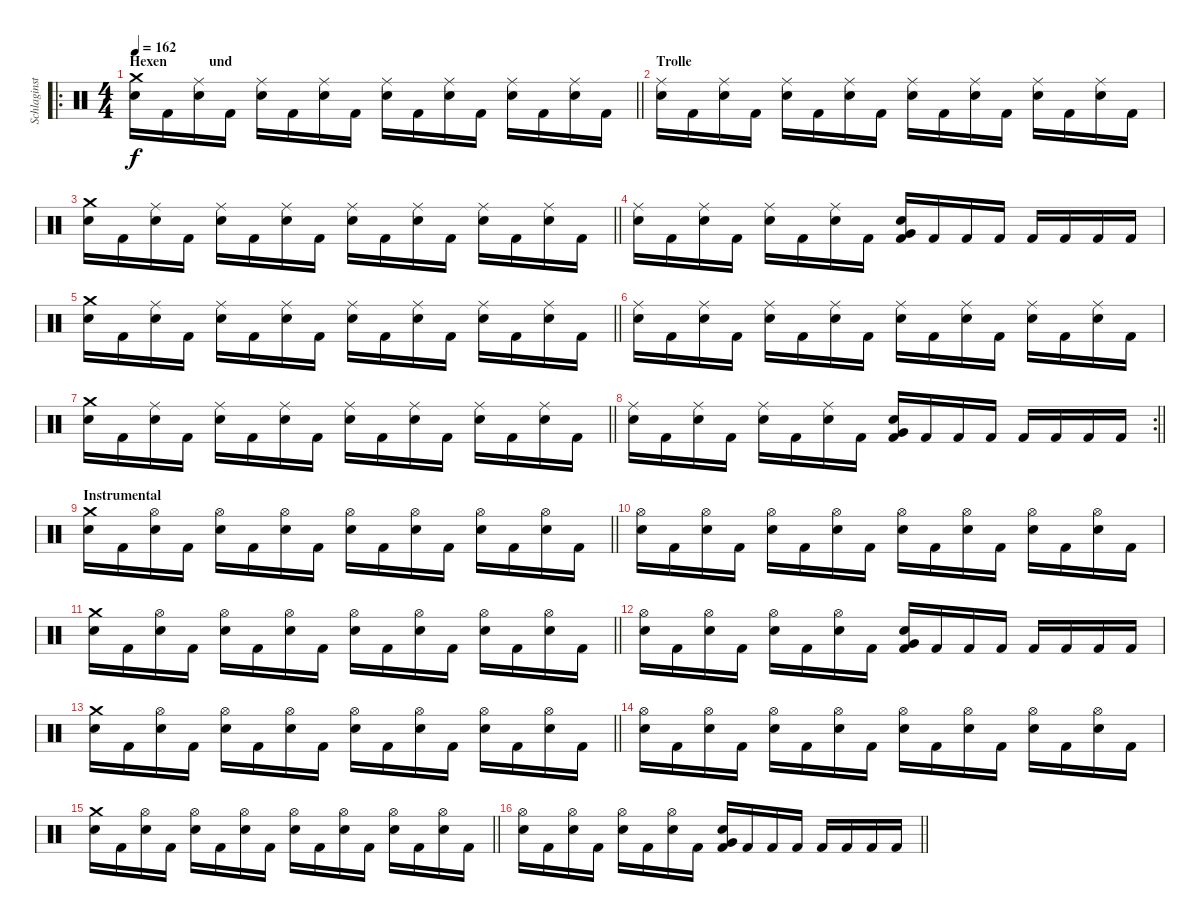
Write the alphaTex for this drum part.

\track ("Schlaginstrumente - Auswahl" "Schlaginst") {instrument percussion}
\staff {score}
\articulation defaults
\ro
\ts (4 4)
\section ("" "Hexen            und")
\tempo 162
\clef neutral
\barLineRight lightlight
\ks c
("Crash medium (hit)" "Electric Snare (hit)").16{dy f} "Kick (hit) 2".16 ("Ride (middle)" "Electric Snare (hit)").16 "Kick (hit) 2".16 ("Ride (middle)" "Electric Snare (hit)").16 "Kick (hit) 2".16 ("Ride (middle)" "Electric Snare (hit)").16 "Kick (hit) 2".16 ("Ride (middle)" "Electric Snare (hit)").16 "Kick (hit) 2".16 ("Ride (middle)" "Electric Snare (hit)").16 "Kick (hit) 2".16 ("Ride (middle)" "Electric Snare (hit)").16 "Kick (hit) 2".16 ("Ride (middle)" "Electric Snare (hit)").16 "Kick (hit) 2".16 |
\section ("" "Trolle")
("Ride (middle)" "Electric Snare (hit)").16 "Kick (hit) 2".16 ("Ride (middle)" "Electric Snare (hit)").16 "Kick (hit) 2".16 ("Ride (middle)" "Electric Snare (hit)").16 "Kick (hit) 2".16 ("Ride (middle)" "Electric Snare (hit)").16 "Kick (hit) 2".16 ("Ride (middle)" "Electric Snare (hit)").16 "Kick (hit) 2".16 ("Ride (middle)" "Electric Snare (hit)").16 "Kick (hit) 2".16 ("Ride (middle)" "Electric Snare (hit)").16 "Kick (hit) 2".16 ("Ride (middle)" "Electric Snare (hit)").16 "Kick (hit) 2".16 |
\barLineRight lightlight
("Crash medium (hit)" "Electric Snare (hit)").16 "Kick (hit) 2".16 ("Ride (middle)" "Electric Snare (hit)").16 "Kick (hit) 2".16 ("Ride (middle)" "Electric Snare (hit)").16 "Kick (hit) 2".16 ("Ride (middle)" "Electric Snare (hit)").16 "Kick (hit) 2".16 ("Ride (middle)" "Electric Snare (hit)").16 "Kick (hit) 2".16 ("Ride (middle)" "Electric Snare (hit)").16 "Kick (hit) 2".16 ("Ride (middle)" "Electric Snare (hit)").16 "Kick (hit) 2".16 ("Ride (middle)" "Electric Snare (hit)").16 "Kick (hit) 2".16 |
("Ride (middle)" "Electric Snare (hit)").16 "Kick (hit) 2".16 ("Ride (middle)" "Electric Snare (hit)").16 "Kick (hit) 2".16 ("Ride (middle)" "Electric Snare (hit)").16 "Kick (hit) 2".16 ("Ride (middle)" "Electric Snare (hit)").16 "Kick (hit) 2".16 ("Very Low Tom (hit)" "Electric Snare (hit)" "Kick (hit) 2").16 "Kick (hit) 2".16 "Kick (hit) 2".16 "Kick (hit) 2".16 "Kick (hit) 2".16 "Kick (hit) 2".16 "Kick (hit) 2".16 "Kick (hit) 2".16 |
\barLineRight lightlight
("Crash medium (hit)" "Electric Snare (hit)").16 "Kick (hit) 2".16 ("Ride (middle)" "Electric Snare (hit)").16 "Kick (hit) 2".16 ("Ride (middle)" "Electric Snare (hit)").16 "Kick (hit) 2".16 ("Ride (middle)" "Electric Snare (hit)").16 "Kick (hit) 2".16 ("Ride (middle)" "Electric Snare (hit)").16 "Kick (hit) 2".16 ("Ride (middle)" "Electric Snare (hit)").16 "Kick (hit) 2".16 ("Ride (middle)" "Electric Snare (hit)").16 "Kick (hit) 2".16 ("Ride (middle)" "Electric Snare (hit)").16 "Kick (hit) 2".16 |
("Ride (middle)" "Electric Snare (hit)").16 "Kick (hit) 2".16 ("Ride (middle)" "Electric Snare (hit)").16 "Kick (hit) 2".16 ("Ride (middle)" "Electric Snare (hit)").16 "Kick (hit) 2".16 ("Ride (middle)" "Electric Snare (hit)").16 "Kick (hit) 2".16 ("Ride (middle)" "Electric Snare (hit)").16 "Kick (hit) 2".16 ("Ride (middle)" "Electric Snare (hit)").16 "Kick (hit) 2".16 ("Ride (middle)" "Electric Snare (hit)").16 "Kick (hit) 2".16 ("Ride (middle)" "Electric Snare (hit)").16 "Kick (hit) 2".16 |
\barLineRight lightlight
("Crash medium (hit)" "Electric Snare (hit)").16 "Kick (hit) 2".16 ("Ride (middle)" "Electric Snare (hit)").16 "Kick (hit) 2".16 ("Ride (middle)" "Electric Snare (hit)").16 "Kick (hit) 2".16 ("Ride (middle)" "Electric Snare (hit)").16 "Kick (hit) 2".16 ("Ride (middle)" "Electric Snare (hit)").16 "Kick (hit) 2".16 ("Ride (middle)" "Electric Snare (hit)").16 "Kick (hit) 2".16 ("Ride (middle)" "Electric Snare (hit)").16 "Kick (hit) 2".16 ("Ride (middle)" "Electric Snare (hit)").16 "Kick (hit) 2".16 |
\rc 2
\barLineRight lightlight
("Ride (middle)" "Electric Snare (hit)").16 "Kick (hit) 2".16 ("Ride (middle)" "Electric Snare (hit)").16 "Kick (hit) 2".16 ("Ride (middle)" "Electric Snare (hit)").16 "Kick (hit) 2".16 ("Ride (middle)" "Electric Snare (hit)").16 "Kick (hit) 2".16 ("Very Low Tom (hit)" "Electric Snare (hit)" "Kick (hit) 2").16 "Kick (hit) 2".16 "Kick (hit) 2".16 "Kick (hit) 2".16 "Kick (hit) 2".16 "Kick (hit) 2".16 "Kick (hit) 2".16 "Kick (hit) 2".16 |
\section ("" "Instrumental")
\barLineRight lightlight
("Crash medium (hit)" "Electric Snare (hit)").16 "Kick (hit) 2".16 ("Hi-Hat (open)" "Electric Snare (hit)").16 "Kick (hit) 2".16 ("Hi-Hat (open)" "Electric Snare (hit)").16 "Kick (hit) 2".16 ("Hi-Hat (open)" "Electric Snare (hit)").16 "Kick (hit) 2".16 ("Hi-Hat (open)" "Electric Snare (hit)").16 "Kick (hit) 2".16 ("Hi-Hat (open)" "Electric Snare (hit)").16 "Kick (hit) 2".16 ("Hi-Hat (open)" "Electric Snare (hit)").16 "Kick (hit) 2".16 ("Hi-Hat (open)" "Electric Snare (hit)").16 "Kick (hit) 2".16 |
("Hi-Hat (open)" "Electric Snare (hit)").16 "Kick (hit) 2".16 ("Hi-Hat (open)" "Electric Snare (hit)").16 "Kick (hit) 2".16 ("Hi-Hat (open)" "Electric Snare (hit)").16 "Kick (hit) 2".16 ("Hi-Hat (open)" "Electric Snare (hit)").16 "Kick (hit) 2".16 ("Hi-Hat (open)" "Electric Snare (hit)").16 "Kick (hit) 2".16 ("Hi-Hat (open)" "Electric Snare (hit)").16 "Kick (hit) 2".16 ("Hi-Hat (open)" "Electric Snare (hit)").16 "Kick (hit) 2".16 ("Hi-Hat (open)" "Electric Snare (hit)").16 "Kick (hit) 2".16 |
\barLineRight lightlight
("Crash medium (hit)" "Electric Snare (hit)").16 "Kick (hit) 2".16 ("Hi-Hat (open)" "Electric Snare (hit)").16 "Kick (hit) 2".16 ("Hi-Hat (open)" "Electric Snare (hit)").16 "Kick (hit) 2".16 ("Hi-Hat (open)" "Electric Snare (hit)").16 "Kick (hit) 2".16 ("Hi-Hat (open)" "Electric Snare (hit)").16 "Kick (hit) 2".16 ("Hi-Hat (open)" "Electric Snare (hit)").16 "Kick (hit) 2".16 ("Hi-Hat (open)" "Electric Snare (hit)").16 "Kick (hit) 2".16 ("Hi-Hat (open)" "Electric Snare (hit)").16 "Kick (hit) 2".16 |
("Hi-Hat (open)" "Electric Snare (hit)").16 "Kick (hit) 2".16 ("Hi-Hat (open)" "Electric Snare (hit)").16 "Kick (hit) 2".16 ("Hi-Hat (open)" "Electric Snare (hit)").16 "Kick (hit) 2".16 ("Hi-Hat (open)" "Electric Snare (hit)").16 "Kick (hit) 2".16 ("Very Low Tom (hit)" "Electric Snare (hit)" "Kick (hit) 2").16 "Kick (hit) 2".16 "Kick (hit) 2".16 "Kick (hit) 2".16 "Kick (hit) 2".16 "Kick (hit) 2".16 "Kick (hit) 2".16 "Kick (hit) 2".16 |
\barLineRight lightlight
("Crash medium (hit)" "Electric Snare (hit)").16 "Kick (hit) 2".16 ("Hi-Hat (open)" "Electric Snare (hit)").16 "Kick (hit) 2".16 ("Hi-Hat (open)" "Electric Snare (hit)").16 "Kick (hit) 2".16 ("Hi-Hat (open)" "Electric Snare (hit)").16 "Kick (hit) 2".16 ("Hi-Hat (open)" "Electric Snare (hit)").16 "Kick (hit) 2".16 ("Hi-Hat (open)" "Electric Snare (hit)").16 "Kick (hit) 2".16 ("Hi-Hat (open)" "Electric Snare (hit)").16 "Kick (hit) 2".16 ("Hi-Hat (open)" "Electric Snare (hit)").16 "Kick (hit) 2".16 |
("Hi-Hat (open)" "Electric Snare (hit)").16 "Kick (hit) 2".16 ("Hi-Hat (open)" "Electric Snare (hit)").16 "Kick (hit) 2".16 ("Hi-Hat (open)" "Electric Snare (hit)").16 "Kick (hit) 2".16 ("Hi-Hat (open)" "Electric Snare (hit)").16 "Kick (hit) 2".16 ("Hi-Hat (open)" "Electric Snare (hit)").16 "Kick (hit) 2".16 ("Hi-Hat (open)" "Electric Snare (hit)").16 "Kick (hit) 2".16 ("Hi-Hat (open)" "Electric Snare (hit)").16 "Kick (hit) 2".16 ("Hi-Hat (open)" "Electric Snare (hit)").16 "Kick (hit) 2".16 |
\barLineRight lightlight
("Crash medium (hit)" "Electric Snare (hit)").16 "Kick (hit) 2".16 ("Hi-Hat (open)" "Electric Snare (hit)").16 "Kick (hit) 2".16 ("Hi-Hat (open)" "Electric Snare (hit)").16 "Kick (hit) 2".16 ("Hi-Hat (open)" "Electric Snare (hit)").16 "Kick (hit) 2".16 ("Hi-Hat (open)" "Electric Snare (hit)").16 "Kick (hit) 2".16 ("Hi-Hat (open)" "Electric Snare (hit)").16 "Kick (hit) 2".16 ("Hi-Hat (open)" "Electric Snare (hit)").16 "Kick (hit) 2".16 ("Hi-Hat (open)" "Electric Snare (hit)").16 "Kick (hit) 2".16 |
\barLineRight lightlight
("Hi-Hat (open)" "Electric Snare (hit)").16 "Kick (hit) 2".16 ("Hi-Hat (open)" "Electric Snare (hit)").16 "Kick (hit) 2".16 ("Hi-Hat (open)" "Electric Snare (hit)").16 "Kick (hit) 2".16 ("Hi-Hat (open)" "Electric Snare (hit)").16 "Kick (hit) 2".16 ("Very Low Tom (hit)" "Electric Snare (hit)" "Kick (hit) 2").16 "Kick (hit) 2".16 "Kick (hit) 2".16 "Kick (hit) 2".16 "Kick (hit) 2".16 "Kick (hit) 2".16 "Kick (hit) 2".16 "Kick (hit) 2".16
